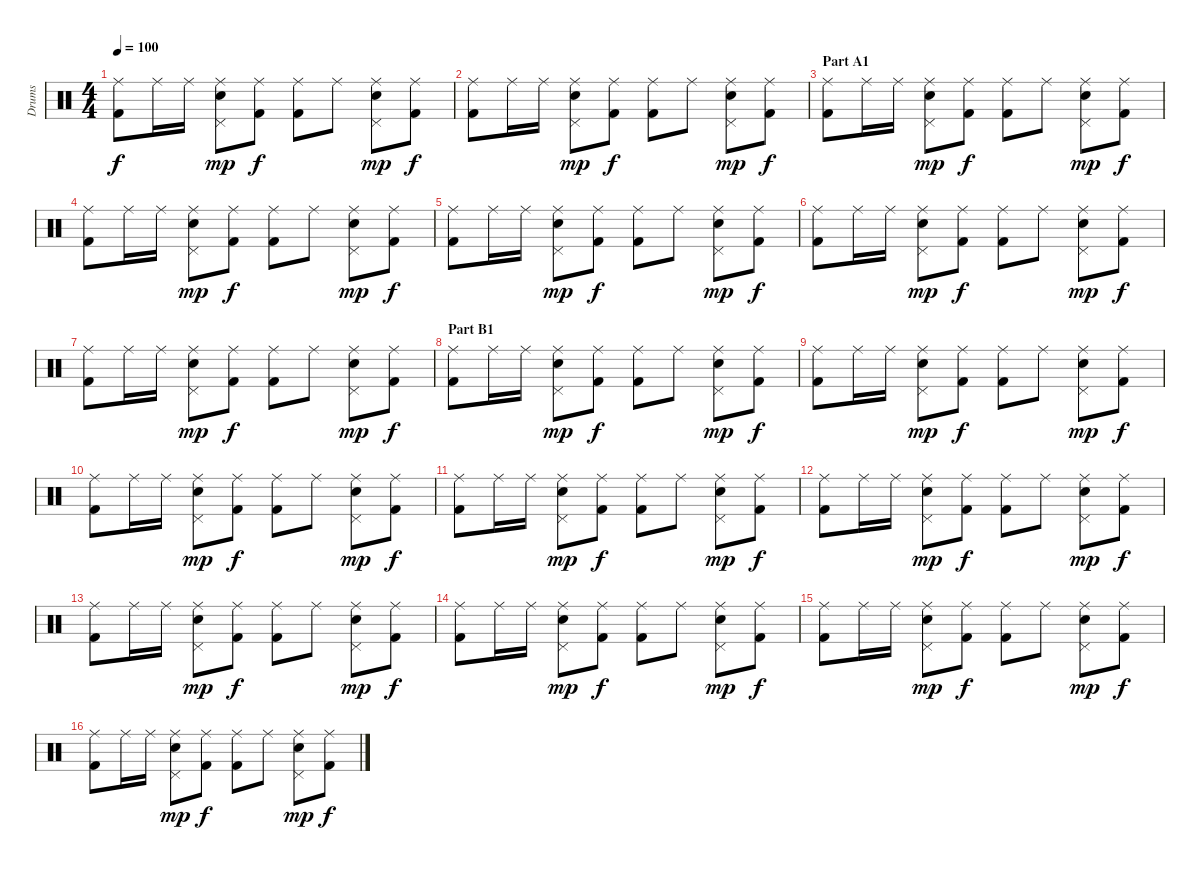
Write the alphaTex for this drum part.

\track ("Drums" "Drums") {instrument percussion}
\staff {score}
\articulation defaults
\ts (4 4)
\tempo 100
\clef neutral
\ks c
("Ride (middle)" "Kick (hit) 2").8{dy f} "Ride (middle)".16 "Ride (middle)".16 ("Ride (middle)" "Pedal Hi-Hat (hit)" "Electric Snare (hit)").8{dy mp} ("Ride (middle)" "Kick (hit) 2").8{dy f} ("Ride (middle)" "Kick (hit) 2").8 "Ride (middle)".8 ("Ride (middle)" "Pedal Hi-Hat (hit)" "Electric Snare (hit)").8{dy mp} ("Ride (middle)" "Kick (hit) 2").8{dy f} |
("Ride (middle)" "Kick (hit) 2").8 "Ride (middle)".16 "Ride (middle)".16 ("Ride (middle)" "Pedal Hi-Hat (hit)" "Electric Snare (hit)").8{dy mp} ("Ride (middle)" "Kick (hit) 2").8{dy f} ("Ride (middle)" "Kick (hit) 2").8 "Ride (middle)".8 ("Ride (middle)" "Pedal Hi-Hat (hit)" "Electric Snare (hit)").8{dy mp} ("Ride (middle)" "Kick (hit) 2").8{dy f} |
\section ("" "Part A1")
("Ride (middle)" "Kick (hit) 2").8 "Ride (middle)".16 "Ride (middle)".16 ("Ride (middle)" "Pedal Hi-Hat (hit)" "Electric Snare (hit)").8{dy mp} ("Ride (middle)" "Kick (hit) 2").8{dy f} ("Ride (middle)" "Kick (hit) 2").8 "Ride (middle)".8 ("Ride (middle)" "Pedal Hi-Hat (hit)" "Electric Snare (hit)").8{dy mp} ("Ride (middle)" "Kick (hit) 2").8{dy f} |
("Ride (middle)" "Kick (hit) 2").8 "Ride (middle)".16 "Ride (middle)".16 ("Ride (middle)" "Pedal Hi-Hat (hit)" "Electric Snare (hit)").8{dy mp} ("Ride (middle)" "Kick (hit) 2").8{dy f} ("Ride (middle)" "Kick (hit) 2").8 "Ride (middle)".8 ("Ride (middle)" "Pedal Hi-Hat (hit)" "Electric Snare (hit)").8{dy mp} ("Ride (middle)" "Kick (hit) 2").8{dy f} |
("Ride (middle)" "Kick (hit) 2").8 "Ride (middle)".16 "Ride (middle)".16 ("Ride (middle)" "Pedal Hi-Hat (hit)" "Electric Snare (hit)").8{dy mp} ("Ride (middle)" "Kick (hit) 2").8{dy f} ("Ride (middle)" "Kick (hit) 2").8 "Ride (middle)".8 ("Ride (middle)" "Pedal Hi-Hat (hit)" "Electric Snare (hit)").8{dy mp} ("Ride (middle)" "Kick (hit) 2").8{dy f} |
("Ride (middle)" "Kick (hit) 2").8 "Ride (middle)".16 "Ride (middle)".16 ("Ride (middle)" "Pedal Hi-Hat (hit)" "Electric Snare (hit)").8{dy mp} ("Ride (middle)" "Kick (hit) 2").8{dy f} ("Ride (middle)" "Kick (hit) 2").8 "Ride (middle)".8 ("Ride (middle)" "Pedal Hi-Hat (hit)" "Electric Snare (hit)").8{dy mp} ("Ride (middle)" "Kick (hit) 2").8{dy f} |
("Ride (middle)" "Kick (hit) 2").8 "Ride (middle)".16 "Ride (middle)".16 ("Ride (middle)" "Pedal Hi-Hat (hit)" "Electric Snare (hit)").8{dy mp} ("Ride (middle)" "Kick (hit) 2").8{dy f} ("Ride (middle)" "Kick (hit) 2").8 "Ride (middle)".8 ("Ride (middle)" "Pedal Hi-Hat (hit)" "Electric Snare (hit)").8{dy mp} ("Ride (middle)" "Kick (hit) 2").8{dy f} |
\section ("" "Part B1")
("Ride (middle)" "Kick (hit) 2").8 "Ride (middle)".16 "Ride (middle)".16 ("Ride (middle)" "Pedal Hi-Hat (hit)" "Electric Snare (hit)").8{dy mp} ("Ride (middle)" "Kick (hit) 2").8{dy f} ("Ride (middle)" "Kick (hit) 2").8 "Ride (middle)".8 ("Ride (middle)" "Pedal Hi-Hat (hit)" "Electric Snare (hit)").8{dy mp} ("Ride (middle)" "Kick (hit) 2").8{dy f} |
("Ride (middle)" "Kick (hit) 2").8 "Ride (middle)".16 "Ride (middle)".16 ("Ride (middle)" "Pedal Hi-Hat (hit)" "Electric Snare (hit)").8{dy mp} ("Ride (middle)" "Kick (hit) 2").8{dy f} ("Ride (middle)" "Kick (hit) 2").8 "Ride (middle)".8 ("Ride (middle)" "Pedal Hi-Hat (hit)" "Electric Snare (hit)").8{dy mp} ("Ride (middle)" "Kick (hit) 2").8{dy f} |
("Ride (middle)" "Kick (hit) 2").8 "Ride (middle)".16 "Ride (middle)".16 ("Ride (middle)" "Pedal Hi-Hat (hit)" "Electric Snare (hit)").8{dy mp} ("Ride (middle)" "Kick (hit) 2").8{dy f} ("Ride (middle)" "Kick (hit) 2").8 "Ride (middle)".8 ("Ride (middle)" "Pedal Hi-Hat (hit)" "Electric Snare (hit)").8{dy mp} ("Ride (middle)" "Kick (hit) 2").8{dy f} |
("Ride (middle)" "Kick (hit) 2").8 "Ride (middle)".16 "Ride (middle)".16 ("Ride (middle)" "Pedal Hi-Hat (hit)" "Electric Snare (hit)").8{dy mp} ("Ride (middle)" "Kick (hit) 2").8{dy f} ("Ride (middle)" "Kick (hit) 2").8 "Ride (middle)".8 ("Ride (middle)" "Pedal Hi-Hat (hit)" "Electric Snare (hit)").8{dy mp} ("Ride (middle)" "Kick (hit) 2").8{dy f} |
("Ride (middle)" "Kick (hit) 2").8 "Ride (middle)".16 "Ride (middle)".16 ("Ride (middle)" "Pedal Hi-Hat (hit)" "Electric Snare (hit)").8{dy mp} ("Ride (middle)" "Kick (hit) 2").8{dy f} ("Ride (middle)" "Kick (hit) 2").8 "Ride (middle)".8 ("Ride (middle)" "Pedal Hi-Hat (hit)" "Electric Snare (hit)").8{dy mp} ("Ride (middle)" "Kick (hit) 2").8{dy f} |
("Ride (middle)" "Kick (hit) 2").8 "Ride (middle)".16 "Ride (middle)".16 ("Ride (middle)" "Pedal Hi-Hat (hit)" "Electric Snare (hit)").8{dy mp} ("Ride (middle)" "Kick (hit) 2").8{dy f} ("Ride (middle)" "Kick (hit) 2").8 "Ride (middle)".8 ("Ride (middle)" "Pedal Hi-Hat (hit)" "Electric Snare (hit)").8{dy mp} ("Ride (middle)" "Kick (hit) 2").8{dy f} |
("Ride (middle)" "Kick (hit) 2").8 "Ride (middle)".16 "Ride (middle)".16 ("Ride (middle)" "Pedal Hi-Hat (hit)" "Electric Snare (hit)").8{dy mp} ("Ride (middle)" "Kick (hit) 2").8{dy f} ("Ride (middle)" "Kick (hit) 2").8 "Ride (middle)".8 ("Ride (middle)" "Pedal Hi-Hat (hit)" "Electric Snare (hit)").8{dy mp} ("Ride (middle)" "Kick (hit) 2").8{dy f} |
("Ride (middle)" "Kick (hit) 2").8 "Ride (middle)".16 "Ride (middle)".16 ("Ride (middle)" "Pedal Hi-Hat (hit)" "Electric Snare (hit)").8{dy mp} ("Ride (middle)" "Kick (hit) 2").8{dy f} ("Ride (middle)" "Kick (hit) 2").8 "Ride (middle)".8 ("Ride (middle)" "Pedal Hi-Hat (hit)" "Electric Snare (hit)").8{dy mp} ("Ride (middle)" "Kick (hit) 2").8{dy f} |
("Ride (middle)" "Kick (hit) 2").8 "Ride (middle)".16 "Ride (middle)".16 ("Ride (middle)" "Pedal Hi-Hat (hit)" "Electric Snare (hit)").8{dy mp} ("Ride (middle)" "Kick (hit) 2").8{dy f} ("Ride (middle)" "Kick (hit) 2").8 "Ride (middle)".8 ("Ride (middle)" "Pedal Hi-Hat (hit)" "Electric Snare (hit)").8{dy mp} ("Ride (middle)" "Kick (hit) 2").8{dy f}
